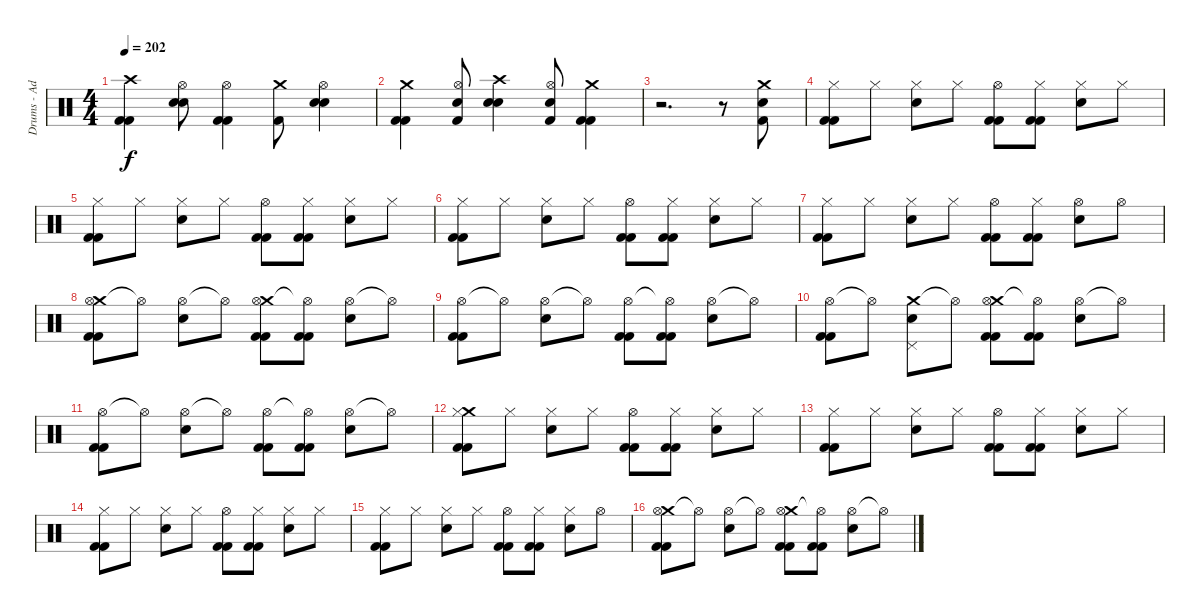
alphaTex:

\track ("Drums - Adam" "Drums - Ad") {instrument percussion}
\staff {score}
\articulation defaults
\ts (4 4)
\tempo 202
\clef neutral
\ks c
("Crash high (hit)" "Kick (hit) 2" "Kick (hit) 2").4{dy f} ("Hi-Hat (open)" "Snare (hit) 2" "Electric Snare (hit)").8 ("Hi-Hat (open)" "Kick (hit) 2" "Kick (hit) 2").4 ("Crash medium (hit)" "Kick (hit) 2").8 ("Hi-Hat (open)" "Snare (hit) 2" "Electric Snare (hit)").4 |
("Crash medium (hit)" "Kick (hit) 2" "Kick (hit) 2").4 ("Hi-Hat (open)" "Electric Snare (hit)" "Kick (hit) 2").8 ("Crash high (hit)" "Snare (hit) 2" "Electric Snare (hit)").4 ("Hi-Hat (open)" "Electric Snare (hit)" "Kick (hit) 2").8 ("Crash medium (hit)" "Kick (hit) 2" "Kick (hit) 2").4 |
r.2{d} r.8 ("Crash medium (hit)" "Electric Snare (hit)" "Kick (hit) 2").8 |
("Hi-Hat (closed)" "Kick (hit) 2" "Kick (hit) 2").8 "Hi-Hat (closed)".8 ("Hi-Hat (closed)" "Electric Snare (hit)").8 "Hi-Hat (closed)".8 ("Hi-Hat (open)" "Kick (hit) 2" "Kick (hit) 2").8 ("Hi-Hat (closed)" "Kick (hit) 2" "Kick (hit) 2").8 ("Hi-Hat (closed)" "Electric Snare (hit)").8 "Hi-Hat (closed)".8 |
("Hi-Hat (closed)" "Kick (hit) 2" "Kick (hit) 2").8 "Hi-Hat (closed)".8 ("Hi-Hat (closed)" "Electric Snare (hit)").8 "Hi-Hat (closed)".8 ("Hi-Hat (open)" "Kick (hit) 2" "Kick (hit) 2").8 ("Hi-Hat (closed)" "Kick (hit) 2" "Kick (hit) 2").8 ("Hi-Hat (closed)" "Electric Snare (hit)").8 "Hi-Hat (closed)".8 |
("Hi-Hat (closed)" "Kick (hit) 2" "Kick (hit) 2").8 "Hi-Hat (closed)".8 ("Hi-Hat (closed)" "Electric Snare (hit)").8 "Hi-Hat (closed)".8 ("Hi-Hat (open)" "Kick (hit) 2" "Kick (hit) 2").8 ("Hi-Hat (closed)" "Kick (hit) 2" "Kick (hit) 2").8 ("Hi-Hat (closed)" "Electric Snare (hit)").8 "Hi-Hat (closed)".8 |
("Hi-Hat (closed)" "Kick (hit) 2" "Kick (hit) 2").8 "Hi-Hat (closed)".8 ("Hi-Hat (closed)" "Electric Snare (hit)").8 "Hi-Hat (closed)".8 ("Hi-Hat (open)" "Kick (hit) 2" "Kick (hit) 2").8 ("Hi-Hat (closed)" "Kick (hit) 2" "Kick (hit) 2").8 ("Hi-Hat (open)" "Electric Snare (hit)").8 "Hi-Hat (open)".8 |
("Crash medium (hit)" "Hi-Hat (open)" "Kick (hit) 2" "Kick (hit) 2").8 "Hi-Hat (open)"{t}.8 ("Hi-Hat (open)" "Electric Snare (hit)").8 "Hi-Hat (open)"{t}.8 ("Crash medium (hit)" "Hi-Hat (open)" "Kick (hit) 2" "Kick (hit) 2").8 ("Hi-Hat (open)"{t} "Kick (hit) 2" "Kick (hit) 2").8 ("Hi-Hat (open)" "Electric Snare (hit)").8 "Hi-Hat (open)"{t}.8 |
("Hi-Hat (open)" "Kick (hit) 2" "Kick (hit) 2").8 "Hi-Hat (open)"{t}.8 ("Hi-Hat (open)" "Electric Snare (hit)").8 "Hi-Hat (open)"{t}.8 ("Hi-Hat (open)" "Kick (hit) 2" "Kick (hit) 2").8 ("Hi-Hat (open)"{t} "Kick (hit) 2" "Kick (hit) 2").8 ("Hi-Hat (open)" "Electric Snare (hit)").8 "Hi-Hat (open)"{t}.8 |
("Hi-Hat (open)" "Kick (hit) 2" "Kick (hit) 2").8 "Hi-Hat (open)"{t}.8 ("Crash medium (hit)" "Pedal Hi-Hat (hit)" "Electric Snare (hit)").8 "Hi-Hat (open)"{t}.8 ("Crash medium (hit)" "Hi-Hat (open)" "Kick (hit) 2" "Kick (hit) 2").8 ("Hi-Hat (open)"{t} "Kick (hit) 2" "Kick (hit) 2").8 ("Hi-Hat (open)" "Electric Snare (hit)").8 "Hi-Hat (open)"{t}.8 |
("Hi-Hat (open)" "Kick (hit) 2" "Kick (hit) 2").8 "Hi-Hat (open)"{t}.8 ("Hi-Hat (open)" "Electric Snare (hit)").8 "Hi-Hat (open)"{t}.8 ("Hi-Hat (open)" "Kick (hit) 2" "Kick (hit) 2").8 ("Hi-Hat (open)"{t} "Kick (hit) 2" "Kick (hit) 2").8 ("Hi-Hat (open)" "Electric Snare (hit)").8 "Hi-Hat (open)"{t}.8 |
("Crash medium (hit)" "Hi-Hat (closed)" "Kick (hit) 2" "Kick (hit) 2").8 "Hi-Hat (closed)".8 ("Hi-Hat (closed)" "Electric Snare (hit)").8 "Hi-Hat (closed)".8 ("Hi-Hat (open)" "Kick (hit) 2" "Kick (hit) 2").8 ("Hi-Hat (closed)" "Kick (hit) 2" "Kick (hit) 2").8 ("Hi-Hat (closed)" "Electric Snare (hit)").8 "Hi-Hat (closed)".8 |
("Hi-Hat (closed)" "Kick (hit) 2" "Kick (hit) 2").8 "Hi-Hat (closed)".8 ("Hi-Hat (closed)" "Electric Snare (hit)").8 "Hi-Hat (closed)".8 ("Hi-Hat (open)" "Kick (hit) 2" "Kick (hit) 2").8 ("Hi-Hat (closed)" "Kick (hit) 2" "Kick (hit) 2").8 ("Hi-Hat (closed)" "Electric Snare (hit)").8 "Hi-Hat (closed)".8 |
("Hi-Hat (closed)" "Kick (hit) 2" "Kick (hit) 2").8 "Hi-Hat (closed)".8 ("Hi-Hat (closed)" "Electric Snare (hit)").8 "Hi-Hat (closed)".8 ("Hi-Hat (open)" "Kick (hit) 2" "Kick (hit) 2").8 ("Hi-Hat (closed)" "Kick (hit) 2" "Kick (hit) 2").8 ("Hi-Hat (closed)" "Electric Snare (hit)").8 "Hi-Hat (closed)".8 |
("Hi-Hat (closed)" "Kick (hit) 2" "Kick (hit) 2").8 "Hi-Hat (closed)".8 ("Hi-Hat (closed)" "Electric Snare (hit)").8 "Hi-Hat (closed)".8 ("Hi-Hat (open)" "Kick (hit) 2" "Kick (hit) 2").8 ("Hi-Hat (closed)" "Kick (hit) 2" "Kick (hit) 2").8 ("Hi-Hat (closed)" "Electric Snare (hit)").8 "Hi-Hat (open)".8 |
("Crash medium (hit)" "Hi-Hat (open)" "Kick (hit) 2" "Kick (hit) 2").8 "Hi-Hat (open)"{t}.8 ("Hi-Hat (open)" "Electric Snare (hit)").8 "Hi-Hat (open)"{t}.8 ("Crash medium (hit)" "Hi-Hat (open)" "Kick (hit) 2" "Kick (hit) 2").8 ("Hi-Hat (open)"{t} "Kick (hit) 2" "Kick (hit) 2").8 ("Hi-Hat (open)" "Electric Snare (hit)").8 "Hi-Hat (open)"{t}.8
